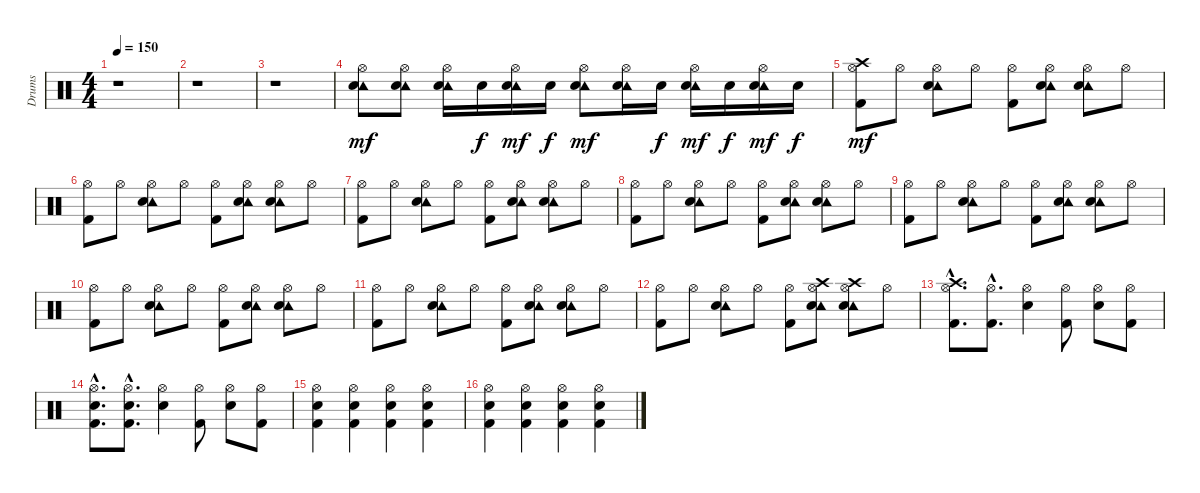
\track ("Drums" "Drums") {instrument percussion}
\staff {score}
\articulation defaults
\ts (4 4)
\tempo 150
\clef neutral
\ks c
r.1{dy mf} |
r.1 |
r.1 |
("Tambourine (hit)" "Hi-Hat (open)" "Snare (hit) 2").8 ("Tambourine (hit)" "Hi-Hat (open)" "Snare (hit) 2").8 ("Tambourine (hit)" "Hi-Hat (open)" "Snare (hit) 2").16 "Snare (hit) 2".16{dy f} ("Tambourine (hit)" "Hi-Hat (open)" "Snare (hit) 2").16{dy mf} "Snare (hit) 2".16{dy f} ("Tambourine (hit)" "Hi-Hat (open)" "Snare (hit) 2").8{dy mf} ("Tambourine (hit)" "Hi-Hat (open)" "Snare (hit) 2").16 "Snare (hit) 2".16{dy f} ("Tambourine (hit)" "Hi-Hat (open)" "Snare (hit) 2").16{dy mf} "Snare (hit) 2".16{dy f} ("Tambourine (hit)" "Hi-Hat (open)" "Snare (hit) 2").16{dy mf} "Snare (hit) 2".16{dy f} |
("Crash high (hit)" "Hi-Hat (open)" "Kick (hit) 2").8{dy mf} "Hi-Hat (open)".8 ("Tambourine (hit)" "Hi-Hat (open)" "Snare (hit) 2").8 "Hi-Hat (open)".8 ("Hi-Hat (open)" "Kick (hit) 2").8 ("Tambourine (hit)" "Hi-Hat (open)" "Snare (hit) 2").8 ("Tambourine (hit)" "Hi-Hat (open)" "Snare (hit) 2").8 "Hi-Hat (open)".8 |
("Hi-Hat (open)" "Kick (hit) 2").8 "Hi-Hat (open)".8 ("Tambourine (hit)" "Hi-Hat (open)" "Snare (hit) 2").8 "Hi-Hat (open)".8 ("Hi-Hat (open)" "Kick (hit) 2").8 ("Tambourine (hit)" "Hi-Hat (open)" "Snare (hit) 2").8 ("Tambourine (hit)" "Hi-Hat (open)" "Snare (hit) 2").8 "Hi-Hat (open)".8 |
("Hi-Hat (open)" "Kick (hit) 2").8 "Hi-Hat (open)".8 ("Tambourine (hit)" "Hi-Hat (open)" "Snare (hit) 2").8 "Hi-Hat (open)".8 ("Hi-Hat (open)" "Kick (hit) 2").8 ("Tambourine (hit)" "Hi-Hat (open)" "Snare (hit) 2").8 ("Tambourine (hit)" "Hi-Hat (open)" "Snare (hit) 2").8 "Hi-Hat (open)".8 |
("Hi-Hat (open)" "Kick (hit) 2").8 "Hi-Hat (open)".8 ("Tambourine (hit)" "Hi-Hat (open)" "Snare (hit) 2").8 "Hi-Hat (open)".8 ("Hi-Hat (open)" "Kick (hit) 2").8 ("Tambourine (hit)" "Hi-Hat (open)" "Snare (hit) 2").8 ("Tambourine (hit)" "Hi-Hat (open)" "Snare (hit) 2").8 "Hi-Hat (open)".8 |
("Hi-Hat (open)" "Kick (hit) 2").8 "Hi-Hat (open)".8 ("Tambourine (hit)" "Hi-Hat (open)" "Snare (hit) 2").8 "Hi-Hat (open)".8 ("Hi-Hat (open)" "Kick (hit) 2").8 ("Tambourine (hit)" "Hi-Hat (open)" "Snare (hit) 2").8 ("Tambourine (hit)" "Hi-Hat (open)" "Snare (hit) 2").8 "Hi-Hat (open)".8 |
("Hi-Hat (open)" "Kick (hit) 2").8 "Hi-Hat (open)".8 ("Tambourine (hit)" "Hi-Hat (open)" "Snare (hit) 2").8 "Hi-Hat (open)".8 ("Hi-Hat (open)" "Kick (hit) 2").8 ("Tambourine (hit)" "Hi-Hat (open)" "Snare (hit) 2").8 ("Tambourine (hit)" "Hi-Hat (open)" "Snare (hit) 2").8 "Hi-Hat (open)".8 |
("Hi-Hat (open)" "Kick (hit) 2").8 "Hi-Hat (open)".8 ("Tambourine (hit)" "Hi-Hat (open)" "Snare (hit) 2").8 "Hi-Hat (open)".8 ("Hi-Hat (open)" "Kick (hit) 2").8 ("Tambourine (hit)" "Hi-Hat (open)" "Snare (hit) 2").8 ("Tambourine (hit)" "Hi-Hat (open)" "Snare (hit) 2").8 "Hi-Hat (open)".8 |
("Hi-Hat (open)" "Kick (hit) 2").8 "Hi-Hat (open)".8 ("Tambourine (hit)" "Hi-Hat (open)" "Snare (hit) 2").8 "Hi-Hat (open)".8 ("Hi-Hat (open)" "Kick (hit) 2").8 ("Crash high (hit)" "Tambourine (hit)" "Hi-Hat (open)" "Snare (hit) 2").8 ("Crash high (hit)" "Tambourine (hit)" "Hi-Hat (open)" "Snare (hit) 2").8 "Hi-Hat (open)".8 |
("Crash high (hit)"{hac} "Hi-Hat (open)"{hac} "Kick (hit) 2"{hac}).8{d} ("Hi-Hat (open)"{hac} "Kick (hit) 2"{hac}).8{d} ("Hi-Hat (open)" "Snare (hit) 2").4 ("Hi-Hat (open)" "Kick (hit) 2").8 ("Hi-Hat (open)" "Snare (hit) 2").8 ("Hi-Hat (open)" "Kick (hit) 2").8 |
("Hi-Hat (open)"{hac} "Snare (hit) 2"{hac} "Kick (hit) 2"{hac}).8{d} ("Hi-Hat (open)"{hac} "Snare (hit) 2"{hac} "Kick (hit) 2"{hac}).8{d} ("Hi-Hat (open)" "Snare (hit) 2").4 ("Hi-Hat (open)" "Kick (hit) 2").8 ("Hi-Hat (open)" "Snare (hit) 2").8 ("Hi-Hat (open)" "Kick (hit) 2").8 |
("Hi-Hat (open)" "Snare (hit) 2" "Kick (hit) 2").4 ("Hi-Hat (open)" "Snare (hit) 2" "Kick (hit) 2").4 ("Hi-Hat (open)" "Snare (hit) 2" "Kick (hit) 2").4 ("Hi-Hat (open)" "Snare (hit) 2" "Kick (hit) 2").4 |
("Hi-Hat (open)" "Snare (hit) 2" "Kick (hit) 2").4 ("Hi-Hat (open)" "Snare (hit) 2" "Kick (hit) 2").4 ("Hi-Hat (open)" "Snare (hit) 2" "Kick (hit) 2").4 ("Hi-Hat (open)" "Snare (hit) 2" "Kick (hit) 2").4
